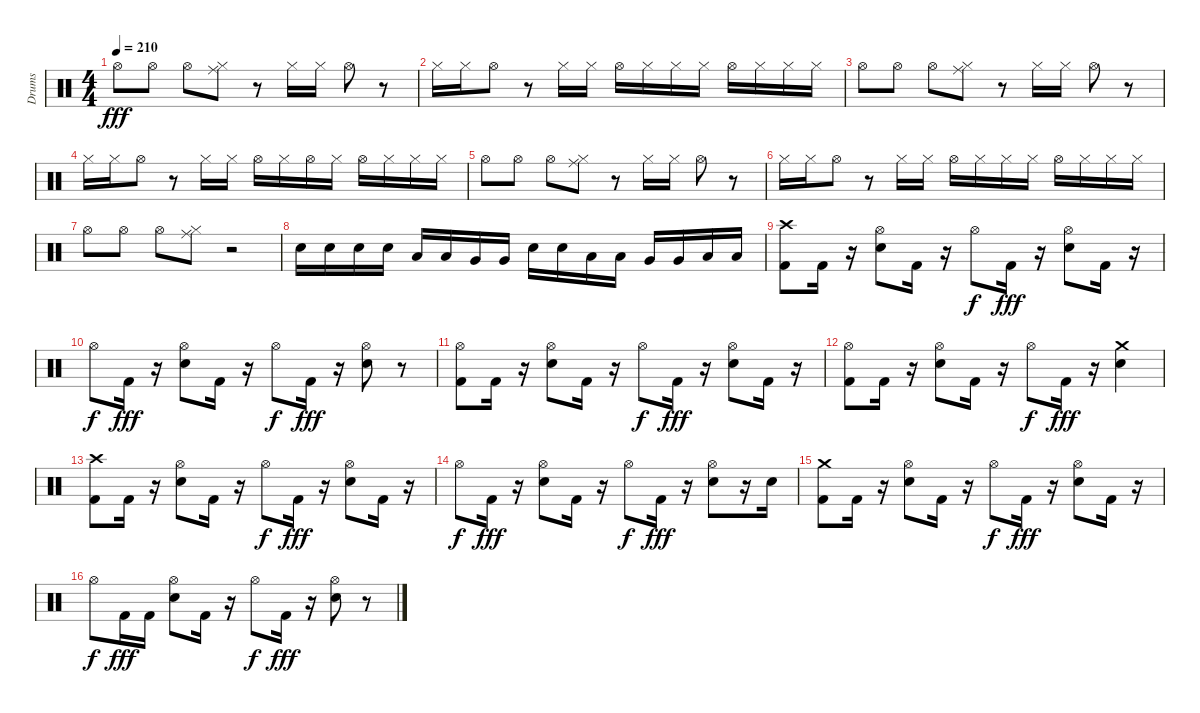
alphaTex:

\track ("Drums" "Drums") {instrument percussion}
\staff {score}
\articulation defaults
\ts (4 4)
\tempo 210
\clef neutral
\ks c "Hi-Hat (open)".8{dy fff} "Hi-Hat (open)".8 "Hi-Hat (open)".8
("Ride (middle)" "Hi-Hat (closed)").8 r.8 "Hi-Hat (closed)".16 "Hi-Hat (closed)".16 "Hi-Hat (open)".8 r.8 |
"Hi-Hat (closed)".16 "Hi-Hat (closed)".16 "Hi-Hat (open)".8 r.8 "Hi-Hat (closed)".16 "Hi-Hat (closed)".16 "Hi-Hat (open)".16 "Hi-Hat (closed)".16 "Hi-Hat (closed)".16 "Hi-Hat (closed)".16 "Hi-Hat (open)".16 "Hi-Hat (closed)".16 "Hi-Hat (closed)".16 "Hi-Hat (closed)".16 |
"Hi-Hat (open)".8 "Hi-Hat (open)".8 "Hi-Hat (open)".8 ("Ride (middle)" "Hi-Hat (closed)").8 r.8 "Hi-Hat (closed)".16 "Hi-Hat (closed)".16 "Hi-Hat (open)".8 r.8 |
"Hi-Hat (closed)".16 "Hi-Hat (closed)".16 "Hi-Hat (open)".8 r.8 "Hi-Hat (closed)".16 "Hi-Hat (closed)".16 "Hi-Hat (open)".16 "Hi-Hat (closed)".16 "Hi-Hat (open)".16 "Hi-Hat (closed)".16 "Hi-Hat (open)".16 "Hi-Hat (closed)".16 "Hi-Hat (closed)".16 "Hi-Hat (closed)".16 |
"Hi-Hat (open)".8 "Hi-Hat (open)".8 "Hi-Hat (open)".8 ("Ride (middle)" "Hi-Hat (closed)").8 r.8 "Hi-Hat (closed)".16 "Hi-Hat (closed)".16 "Hi-Hat (open)".8 r.8 |
"Hi-Hat (closed)".16 "Hi-Hat (closed)".16 "Hi-Hat (open)".8 r.8 "Hi-Hat (closed)".16 "Hi-Hat (closed)".16 "Hi-Hat (open)".16 "Hi-Hat (closed)".16 "Hi-Hat (closed)".16 "Hi-Hat (closed)".16 "Hi-Hat (open)".16 "Hi-Hat (closed)".16 "Hi-Hat (closed)".16 "Hi-Hat (closed)".16 |
"Hi-Hat (open)".8 "Hi-Hat (open)".8 "Hi-Hat (open)".8 ("Ride (middle)" "Hi-Hat (closed)").8 r.2 |
"Electric Snare (hit)".16 "Electric Snare (hit)".16 "Electric Snare (hit)".16 "Electric Snare (hit)".16 "Low Tom (hit)".16 "Low Tom (hit)".16 "Very Low Tom (hit)".16 "Very Low Tom (hit)".16 "Electric Snare (hit)".16 "Electric Snare (hit)".16 "Low Tom (hit)".16 "Low Tom (hit)".16 "Very Low Tom (hit)".16 "Very Low Tom (hit)".16 "Low Floor Tom (hit)".16 "Low Floor Tom (hit)".16 |
("Kick (hit) 2" "Crash high (hit)").8 "Kick (hit) 2".16 r.16 ("Electric Snare (hit)" "Hi-Hat (open)").8 "Kick (hit) 2".16 r.16 "Hi-Hat (open)".8{dy f} "Kick (hit) 2".16{dy fff} r.16 ("Electric Snare (hit)" "Hi-Hat (open)").8 "Kick (hit) 2".16 r.16 |
"Hi-Hat (open)".8{dy f} "Kick (hit) 2".16{dy fff} r.16 ("Electric Snare (hit)" "Hi-Hat (open)").8 "Kick (hit) 2".16 r.16 "Hi-Hat (open)".8{dy f} "Kick (hit) 2".16{dy fff} r.16 ("Electric Snare (hit)" "Hi-Hat (open)").8 r.8 |
("Kick (hit) 2" "Hi-Hat (open)").8 "Kick (hit) 2".16 r.16 ("Electric Snare (hit)" "Hi-Hat (open)").8 "Kick (hit) 2".16 r.16 "Hi-Hat (open)".8{dy f} "Kick (hit) 2".16{dy fff} r.16 ("Electric Snare (hit)" "Hi-Hat (open)").8 "Kick (hit) 2".16 r.16 |
("Kick (hit) 2" "Hi-Hat (open)").8 "Kick (hit) 2".16 r.16 ("Electric Snare (hit)" "Hi-Hat (open)").8 "Kick (hit) 2".16 r.16 "Hi-Hat (open)".8{dy f} "Kick (hit) 2".16{dy fff} r.16 ("Electric Snare (hit)" "Crash medium (hit)").4 |
("Kick (hit) 2" "Crash high (hit)").8 "Kick (hit) 2".16 r.16 ("Electric Snare (hit)" "Hi-Hat (open)").8 "Kick (hit) 2".16 r.16 "Hi-Hat (open)".8{dy f} "Kick (hit) 2".16{dy fff} r.16 ("Electric Snare (hit)" "Hi-Hat (open)").8 "Kick (hit) 2".16 r.16 |
"Hi-Hat (open)".8{dy f} "Kick (hit) 2".16{dy fff} r.16 ("Electric Snare (hit)" "Hi-Hat (open)").8 "Kick (hit) 2".16 r.16 "Hi-Hat (open)".8{dy f} "Kick (hit) 2".16{dy fff} r.16 ("Electric Snare (hit)" "Hi-Hat (open)").8 r.16 "Electric Snare (hit)".16 |
("Kick (hit) 2" "Crash medium (hit)").8 "Kick (hit) 2".16 r.16 ("Electric Snare (hit)" "Hi-Hat (open)").8 "Kick (hit) 2".16 r.16 "Hi-Hat (open)".8{dy f} "Kick (hit) 2".16{dy fff} r.16 ("Electric Snare (hit)" "Hi-Hat (open)").8 "Kick (hit) 2".16 r.16 |
"Hi-Hat (open)".8{dy f} "Kick (hit) 2".16{dy fff} "Kick (hit) 2".16 ("Electric Snare (hit)" "Hi-Hat (open)").8 "Kick (hit) 2".16 r.16 "Hi-Hat (open)".8{dy f} "Kick (hit) 2".16{dy fff} r.16 ("Electric Snare (hit)" "Hi-Hat (open)").8 r.8
